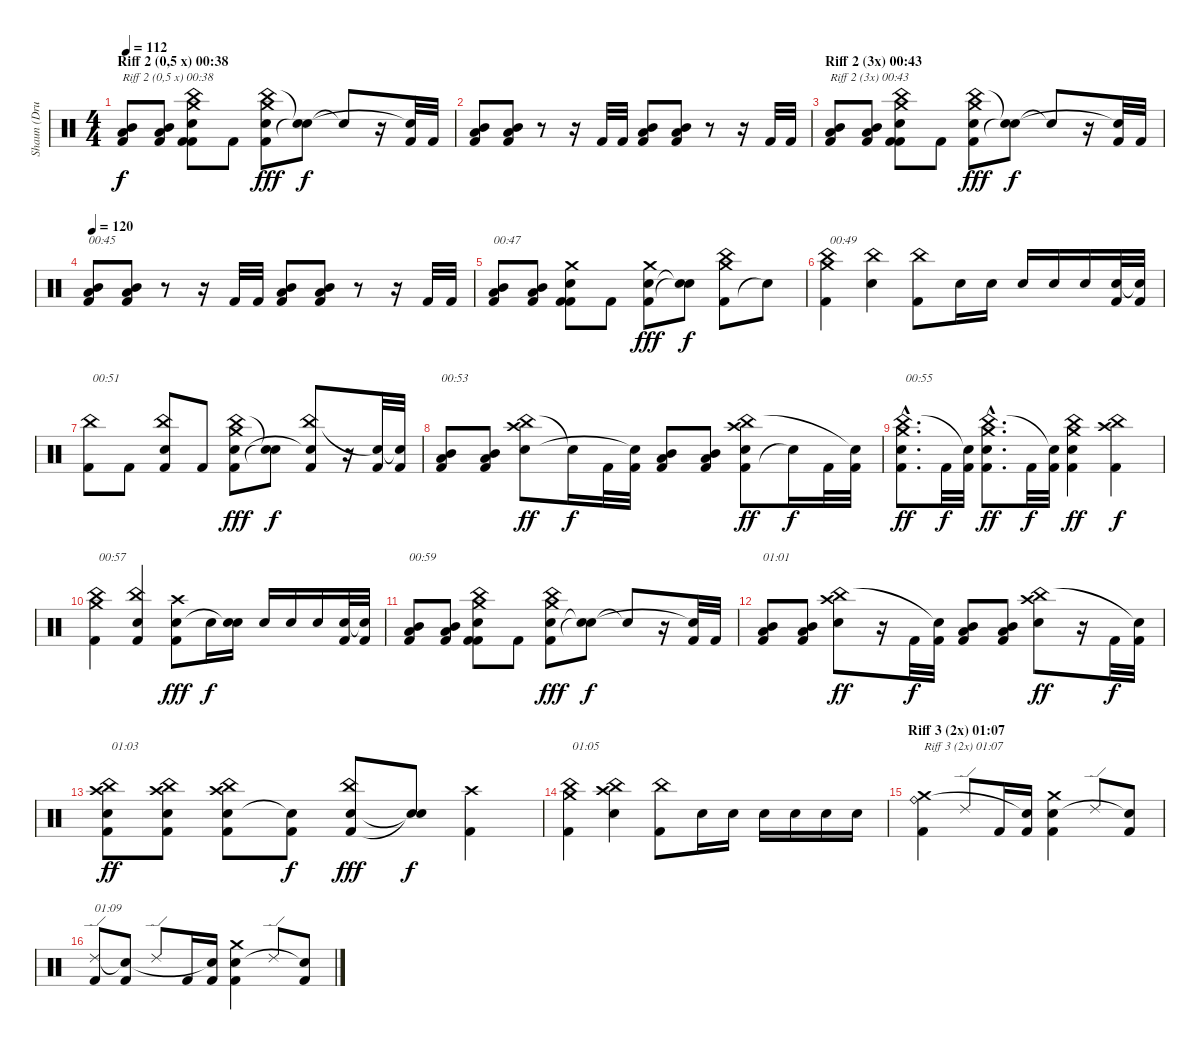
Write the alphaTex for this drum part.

\track ("Shaun (Drums Of DOOM)" "Shaun (Dru") {instrument percussion}
\staff {score}
\articulation defaults
\ts (4 4)
\section ("" "Riff 2 (0,5 x) 00:38")
\tempo 112
\clef neutral
\ks c
("Kick (hit) 2" "Low Tom (hit)" "Mid Tom (hit)").8{txt "Riff 2 (0,5 x) 00:38" dy f} ("Kick (hit) 2" "Low Tom (hit)" "Mid Tom (hit)").8 ("Kick (hit) 2" "Kick (hit) 2" "China (hit)" "Electric Snare (hit)" "Crash medium (hit)").8 "Kick (hit) 2".8 ("Kick (hit) 2" "China (hit)" "Electric Snare (hit)" "Crash medium (hit)").8{dy fff} ("Snare (hit)"{t} "Snare (hit)"{t}).8{dy f} "Snare (hit)"{t}.8 r.16 ("Kick (hit) 2" "Snare (hit)"{t}).32 "Kick (hit) 2".32 |
("Kick (hit) 2" "Low Tom (hit)" "Mid Tom (hit)").8 ("Kick (hit) 2" "Low Tom (hit)" "Mid Tom (hit)").8 r.8 r.16 "Kick (hit) 2".32 "Kick (hit) 2".32 ("Kick (hit) 2" "Low Tom (hit)" "Mid Tom (hit)").8 ("Kick (hit) 2" "Low Tom (hit)" "Mid Tom (hit)").8 r.8 r.16 "Kick (hit) 2".32 "Kick (hit) 2".32 |
\section ("" "Riff 2 (3x) 00:43")
("Kick (hit) 2" "Low Tom (hit)" "Mid Tom (hit)").8{txt "Riff 2 (3x) 00:43"} ("Kick (hit) 2" "Low Tom (hit)" "Mid Tom (hit)").8 ("Kick (hit) 2" "Kick (hit) 2" "China (hit)" "Electric Snare (hit)" "Crash medium (hit)").8 "Kick (hit) 2".8 ("Kick (hit) 2" "China (hit)" "Electric Snare (hit)" "Crash medium (hit)").8{dy fff} ("Snare (hit)"{t} "Snare (hit)"{t}).8{dy f} "Snare (hit)"{t}.8 r.16 ("Kick (hit) 2" "Snare (hit)"{t}).32 "Kick (hit) 2".32 |
\tempo 120
("Kick (hit) 2" "Low Tom (hit)" "Mid Tom (hit)").8{txt "00:45"} ("Kick (hit) 2" "Low Tom (hit)" "Mid Tom (hit)").8 r.8 r.16 "Kick (hit) 2".32 "Kick (hit) 2".32 ("Kick (hit) 2" "Low Tom (hit)" "Mid Tom (hit)").8 ("Kick (hit) 2" "Low Tom (hit)" "Mid Tom (hit)").8 r.8 r.16 "Kick (hit) 2".32 "Kick (hit) 2".32 |
("Kick (hit) 2" "Low Tom (hit)" "Mid Tom (hit)").8{txt "00:47"} ("Kick (hit) 2" "Low Tom (hit)" "Mid Tom (hit)").8 ("Kick (hit) 2" "Kick (hit) 2" "Electric Snare (hit)" "Crash medium (hit)").8 "Kick (hit) 2".8 ("Kick (hit) 2" "Electric Snare (hit)" "Crash medium (hit)").8{dy fff} ("Snare (hit)"{t} "Snare (hit)"{t}).8{dy f} ("Kick (hit) 2" "China (hit)" "Crash medium (hit)").8 "Snare (hit)"{t}.8 |
("Kick (hit) 2" "China (hit)" "Crash medium (hit)").4{txt "00:49"} ("China (hit)" "Electric Snare (hit)").4 ("Kick (hit) 2" "China (hit)").8 "Electric Snare (hit)".16 "Electric Snare (hit)".16 "Electric Snare (hit)".16 "Electric Snare (hit)".16 "Electric Snare (hit)".16 ("Kick (hit) 2" "Electric Snare (hit)").32 ("Kick (hit) 2" "Snare (hit)"{t}).32 |
("Kick (hit) 2" "China (hit)").8{txt "00:51"} "Kick (hit) 2".8 ("Kick (hit) 2" "China (hit)" "Electric Snare (hit)").8 "Kick (hit) 2".8 ("Kick (hit) 2" "China (hit)" "Electric Snare (hit)" "Crash medium (hit)").8{dy fff} ("Snare (hit)"{t} "Snare (hit)"{t}).8{dy f} ("Kick (hit) 2" "China (hit)" "Snare (hit)"{t}).8 r.16 ("Kick (hit) 2" "Snare (hit)"{t}).32 ("Kick (hit) 2" "Snare (hit)"{t}).32 |
("Kick (hit) 2" "Low Tom (hit)" "Mid Tom (hit)").8{txt "00:53"} ("Kick (hit) 2" "Low Tom (hit)" "Mid Tom (hit)").8 ("China (hit)" "Electric Snare (hit)" "Crash high (hit)").8{dy ff} "Snare (hit)"{t}.16{dy f} "Kick (hit) 2".32 ("Kick (hit) 2" "Snare (hit)"{t}).32 ("Kick (hit) 2" "Low Tom (hit)" "Mid Tom (hit)").8 ("Kick (hit) 2" "Low Tom (hit)" "Mid Tom (hit)").8 ("Kick (hit) 2" "China (hit)" "Electric Snare (hit)" "Crash high (hit)").8{dy ff} "Snare (hit)"{t}.16{dy f} "Kick (hit) 2".32 ("Kick (hit) 2" "Snare (hit)"{t}).32 |
("Kick (hit) 2"{hac} "China (hit)"{hac} "Electric Snare (hit)"{hac} "Crash medium (hit)"{hac}).8{d txt "00:55" dy ff} "Kick (hit) 2".32{dy f} ("Kick (hit) 2" "Snare (hit)"{t}).32 ("Kick (hit) 2"{hac} "China (hit)"{hac} "Electric Snare (hit)"{hac} "Crash medium (hit)"{hac}).8{d dy ff} "Kick (hit) 2".32{dy f} ("Kick (hit) 2" "Snare (hit)"{t}).32 ("Kick (hit) 2" "China (hit)" "Electric Snare (hit)" "Crash medium (hit)").4{dy ff} ("Kick (hit) 2" "China (hit)" "Crash high (hit)").4{dy f} |
("Kick (hit) 2" "China (hit)" "Crash medium (hit)").4{txt "00:57"} ("Kick (hit) 2" "Electric Snare (hit)" "China (hit)").4 ("Kick (hit) 2" "Electric Snare (hit)" "Crash high (hit)").8{dy fff} "Electric Snare (hit)".16{dy f} ("Electric Snare (hit)" "Snare (hit)"{t}).16 "Electric Snare (hit)".16 "Electric Snare (hit)".16 "Electric Snare (hit)".16 ("Kick (hit) 2" "Electric Snare (hit)").32 ("Kick (hit) 2" "Snare (hit)"{t}).32 |
("Kick (hit) 2" "Low Tom (hit)" "Mid Tom (hit)").8{txt "00:59"} ("Kick (hit) 2" "Low Tom (hit)" "Mid Tom (hit)").8 ("Kick (hit) 2" "Kick (hit) 2" "Electric Snare (hit)" "China (hit)" "Crash medium (hit)").8 "Kick (hit) 2".8 ("Kick (hit) 2" "Electric Snare (hit)" "China (hit)" "Crash medium (hit)").8{dy fff} ("Snare (hit)"{t} "Snare (hit)"{t}).8{dy f} "Snare (hit)"{t}.8 r.16 ("Kick (hit) 2" "Snare (hit)"{t}).32 "Kick (hit) 2".32 |
("Kick (hit) 2" "Low Tom (hit)" "Mid Tom (hit)").8{txt "01:01"} ("Kick (hit) 2" "Low Tom (hit)" "Mid Tom (hit)").8 ("Electric Snare (hit)" "China (hit)" "Crash high (hit)").8{dy ff} r.16 "Kick (hit) 2".32{dy f} ("Kick (hit) 2" "Snare (hit)"{t}).32 ("Kick (hit) 2" "Low Tom (hit)" "Mid Tom (hit)").8 ("Kick (hit) 2" "Low Tom (hit)" "Mid Tom (hit)").8 ("Electric Snare (hit)" "China (hit)" "Crash high (hit)").8{dy ff} r.16 "Kick (hit) 2".32{dy f} ("Kick (hit) 2" "Snare (hit)"{t}).32 |
("Kick (hit) 2" "Electric Snare (hit)" "China (hit)" "Crash high (hit)").8{txt "01:03" dy ff} ("Kick (hit) 2" "Electric Snare (hit)" "China (hit)" "Crash high (hit)").8 ("Kick (hit) 2" "Electric Snare (hit)" "China (hit)" "Crash high (hit)").8 ("Kick (hit) 2" "Snare (hit)"{t}).8{dy f} ("Kick (hit) 2" "Electric Snare (hit)" "China (hit)").8{dy fff} ("Snare (hit)"{t} "Snare (hit)"{t}).8{dy f} ("Kick (hit) 2" "Crash high (hit)").4 |
("Kick (hit) 2" "China (hit)" "Crash medium (hit)").4{txt "01:05"} ("China (hit)" "Electric Snare (hit)" "Crash high (hit)").4 ("Kick (hit) 2" "China (hit)").8 "Electric Snare (hit)".16 "Electric Snare (hit)".16 "Electric Snare (hit)".16 "Electric Snare (hit)".16 "Electric Snare (hit)".16 "Electric Snare (hit)".16 |
\section ("" "Riff 3 (2x) 01:07")
("Kick (hit) 2" "Ride (bell)" "Crash medium (hit)").4{txt "Riff 3 (2x) 01:07"} "Ride (edge) 2".8 "Kick (hit) 2".16 ("Kick (hit) 2" "Snare (hit)"{t}).16 ("Kick (hit) 2" "Electric Snare (hit)" "Crash medium (hit)").4 "Ride (edge) 2".8 ("Kick (hit) 2" "Snare (hit)"{t}).8 |
("Kick (hit) 2" "Ride (edge) 2").8{txt "01:09"} ("Kick (hit) 2" "Snare (hit)"{t}).8 "Ride (edge) 2".8 "Kick (hit) 2".16 ("Kick (hit) 2" "Snare (hit)"{t}).16 ("Kick (hit) 2" "Electric Snare (hit)" "Crash medium (hit)").4 "Ride (edge) 2".8 ("Kick (hit) 2" "Snare (hit)"{t}).8
